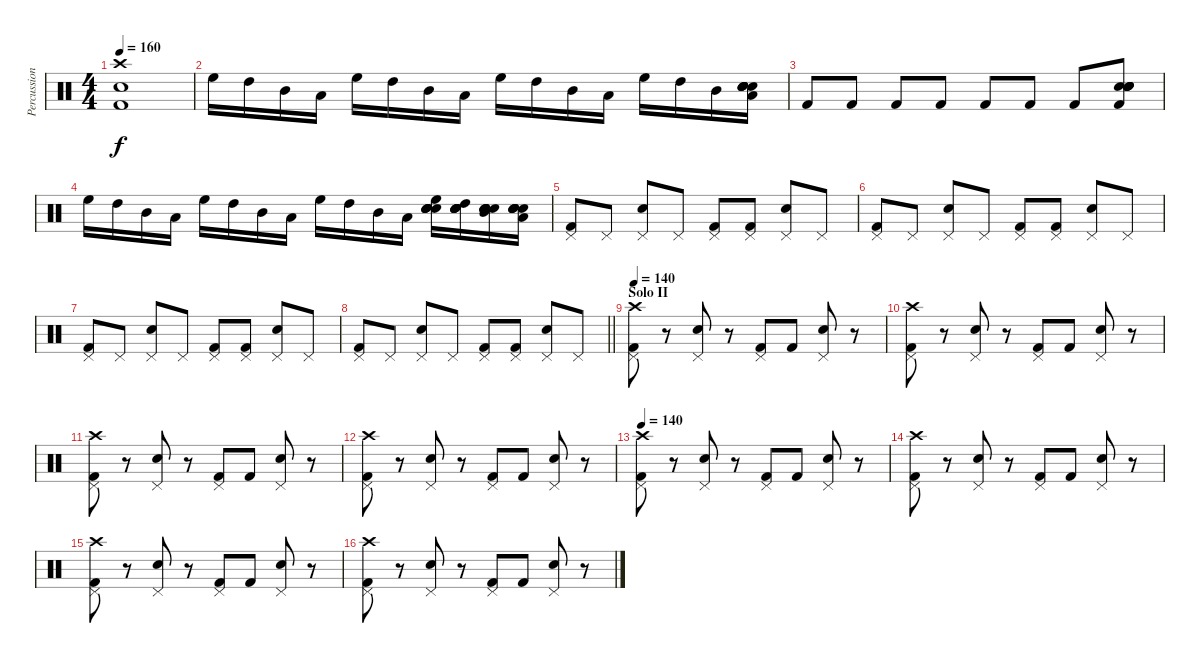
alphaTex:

\track ("Percussion" "Percussion") {instrument percussion}
\staff {score}
\articulation defaults
\ts (4 4)
\tempo 160
\clef neutral
\ks c
("Crash high (hit)" "Electric Snare (hit)" "Kick (hit) 2").1{dy f} |
"High Floor Tom (hit)".16 "High Tom (hit)".16 "Mid Tom (hit)".16 "Low Tom (hit)".16 "High Floor Tom (hit)".16 "High Tom (hit)".16 "Mid Tom (hit)".16 "Low Tom (hit)".16 "High Floor Tom (hit)".16 "High Tom (hit)".16 "Mid Tom (hit)".16 "Low Tom (hit)".16 "High Floor Tom (hit)".16 "High Tom (hit)".16 "Mid Tom (hit)".16 ("Electric Snare (hit)" "Electric Snare (hit)" "Low Tom (hit)" "Electric Snare (hit)" "Electric Snare (hit)" "Electric Snare (hit)").16 |
"Kick (hit) 2".8 "Kick (hit) 2".8 "Kick (hit) 2".8 "Kick (hit) 2".8 "Kick (hit) 2".8 "Kick (hit) 2".8 "Kick (hit) 2".8 ("Electric Snare (hit)" "Electric Snare (hit)" "Electric Snare (hit)" "Electric Snare (hit)" "Electric Snare (hit)" "Kick (hit) 2").8 |
"High Floor Tom (hit)".16 "High Tom (hit)".16 "Mid Tom (hit)".16 "Low Tom (hit)".16 "High Floor Tom (hit)".16 "High Tom (hit)".16 "Mid Tom (hit)".16 "Low Tom (hit)".16 "High Floor Tom (hit)".16 "High Tom (hit)".16 "Mid Tom (hit)".16 "Low Tom (hit)".16 ("Snare (hit) 2" "High Floor Tom (hit)" "Snare (hit) 2" "Snare (hit) 2" "Snare (hit) 2" "Snare (hit) 2").16 ("Snare (hit) 2" "High Tom (hit)" "Snare (hit) 2" "Snare (hit) 2" "Snare (hit) 2" "Snare (hit) 2").16 ("Snare (hit) 2" "Mid Tom (hit)" "Snare (hit) 2" "Snare (hit) 2" "Snare (hit) 2" "Snare (hit) 2").16 ("Snare (hit) 2" "Low Tom (hit)" "Snare (hit) 2" "Snare (hit) 2" "Snare (hit) 2" "Snare (hit) 2").16 |
("Pedal Hi-Hat (hit)" "Kick (hit) 2").8 "Pedal Hi-Hat (hit)".8 ("Pedal Hi-Hat (hit)" "Electric Snare (hit)").8 "Pedal Hi-Hat (hit)".8 ("Pedal Hi-Hat (hit)" "Kick (hit) 2").8 ("Pedal Hi-Hat (hit)" "Kick (hit) 2").8 ("Pedal Hi-Hat (hit)" "Electric Snare (hit)").8 "Pedal Hi-Hat (hit)".8 |
("Pedal Hi-Hat (hit)" "Kick (hit) 2").8 "Pedal Hi-Hat (hit)".8 ("Pedal Hi-Hat (hit)" "Electric Snare (hit)").8 "Pedal Hi-Hat (hit)".8 ("Pedal Hi-Hat (hit)" "Kick (hit) 2").8 ("Pedal Hi-Hat (hit)" "Kick (hit) 2").8 ("Pedal Hi-Hat (hit)" "Electric Snare (hit)").8 "Pedal Hi-Hat (hit)".8 |
("Pedal Hi-Hat (hit)" "Kick (hit) 2").8 "Pedal Hi-Hat (hit)".8 ("Pedal Hi-Hat (hit)" "Electric Snare (hit)").8 "Pedal Hi-Hat (hit)".8 ("Pedal Hi-Hat (hit)" "Kick (hit) 2").8 ("Pedal Hi-Hat (hit)" "Kick (hit) 2").8 ("Pedal Hi-Hat (hit)" "Electric Snare (hit)").8 "Pedal Hi-Hat (hit)".8 |
\barLineRight lightlight
("Pedal Hi-Hat (hit)" "Kick (hit) 2").8 "Pedal Hi-Hat (hit)".8 ("Pedal Hi-Hat (hit)" "Electric Snare (hit)").8 "Pedal Hi-Hat (hit)".8 ("Pedal Hi-Hat (hit)" "Kick (hit) 2").8 ("Pedal Hi-Hat (hit)" "Kick (hit) 2").8 ("Pedal Hi-Hat (hit)" "Electric Snare (hit)").8 "Pedal Hi-Hat (hit)".8 |
\section ("" "Solo II")
\tempo 140
("Crash high (hit)" "Pedal Hi-Hat (hit)" "Kick (hit) 2").8 r.8 ("Pedal Hi-Hat (hit)" "Electric Snare (hit)").8 r.8 ("Pedal Hi-Hat (hit)" "Kick (hit) 2").8 "Kick (hit) 2".8 ("Pedal Hi-Hat (hit)" "Electric Snare (hit)").8 r.8 |
("Crash high (hit)" "Pedal Hi-Hat (hit)" "Kick (hit) 2").8 r.8 ("Pedal Hi-Hat (hit)" "Electric Snare (hit)").8 r.8 ("Pedal Hi-Hat (hit)" "Kick (hit) 2").8 "Kick (hit) 2".8 ("Pedal Hi-Hat (hit)" "Electric Snare (hit)").8 r.8 |
("Crash high (hit)" "Pedal Hi-Hat (hit)" "Kick (hit) 2").8 r.8 ("Pedal Hi-Hat (hit)" "Electric Snare (hit)").8 r.8 ("Pedal Hi-Hat (hit)" "Kick (hit) 2").8 "Kick (hit) 2".8 ("Pedal Hi-Hat (hit)" "Electric Snare (hit)").8 r.8 |
("Crash high (hit)" "Pedal Hi-Hat (hit)" "Kick (hit) 2").8 r.8 ("Pedal Hi-Hat (hit)" "Electric Snare (hit)").8 r.8 ("Pedal Hi-Hat (hit)" "Kick (hit) 2").8 "Kick (hit) 2".8 ("Pedal Hi-Hat (hit)" "Electric Snare (hit)").8 r.8 |
\tempo 140
("Crash high (hit)" "Pedal Hi-Hat (hit)" "Kick (hit) 2").8 r.8 ("Pedal Hi-Hat (hit)" "Electric Snare (hit)").8 r.8 ("Pedal Hi-Hat (hit)" "Kick (hit) 2").8 "Kick (hit) 2".8 ("Pedal Hi-Hat (hit)" "Electric Snare (hit)").8 r.8 |
("Crash high (hit)" "Pedal Hi-Hat (hit)" "Kick (hit) 2").8 r.8 ("Pedal Hi-Hat (hit)" "Electric Snare (hit)").8 r.8 ("Pedal Hi-Hat (hit)" "Kick (hit) 2").8 "Kick (hit) 2".8 ("Pedal Hi-Hat (hit)" "Electric Snare (hit)").8 r.8 |
("Crash high (hit)" "Pedal Hi-Hat (hit)" "Kick (hit) 2").8 r.8 ("Pedal Hi-Hat (hit)" "Electric Snare (hit)").8 r.8 ("Pedal Hi-Hat (hit)" "Kick (hit) 2").8 "Kick (hit) 2".8 ("Pedal Hi-Hat (hit)" "Electric Snare (hit)").8 r.8 |
("Crash high (hit)" "Pedal Hi-Hat (hit)" "Kick (hit) 2").8 r.8 ("Pedal Hi-Hat (hit)" "Electric Snare (hit)").8 r.8 ("Pedal Hi-Hat (hit)" "Kick (hit) 2").8 "Kick (hit) 2".8 ("Pedal Hi-Hat (hit)" "Electric Snare (hit)").8 r.8
